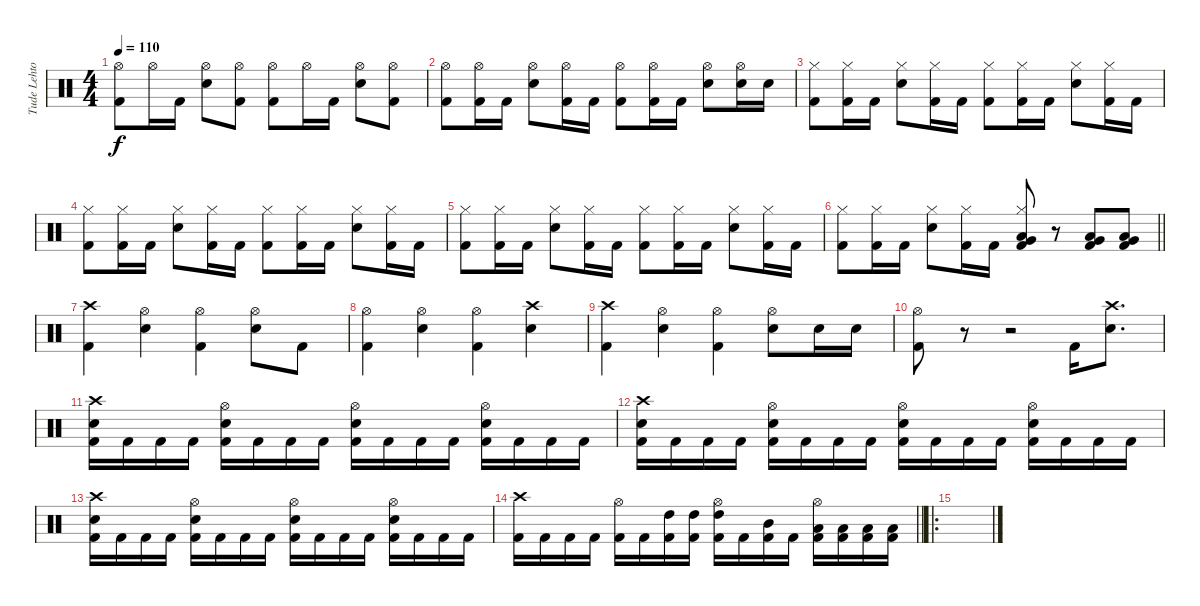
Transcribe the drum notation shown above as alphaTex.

\track ("Tude Lehtonen" "Tude Lehto") {instrument percussion}
\staff {score}
\articulation defaults
\ts (4 4)
\tempo 110
\clef neutral
\ks c
("Hi-Hat (open)" "Kick (hit) 2").8{dy f} "Hi-Hat (open)".16 "Kick (hit) 2".16 ("Hi-Hat (open)" "Snare (hit) 2").8 ("Hi-Hat (open)" "Kick (hit) 2").8 ("Hi-Hat (open)" "Kick (hit) 2").8 "Hi-Hat (open)".16 "Kick (hit) 2".16 ("Hi-Hat (open)" "Snare (hit) 2").8 ("Hi-Hat (open)" "Kick (hit) 2").8 |
("Hi-Hat (open)" "Kick (hit) 2").8 ("Hi-Hat (open)" "Kick (hit) 2").16 "Kick (hit) 2".16 ("Hi-Hat (open)" "Snare (hit) 2").8 ("Hi-Hat (open)" "Kick (hit) 2").16 "Kick (hit) 2".16 ("Hi-Hat (open)" "Kick (hit) 2").8 ("Hi-Hat (open)" "Kick (hit) 2").16 "Kick (hit) 2".16 ("Hi-Hat (open)" "Snare (hit) 2").8 ("Hi-Hat (open)" "Snare (hit) 2").16 "Snare (hit) 2".16 |
("Hi-Hat (closed)" "Kick (hit) 2").8 ("Hi-Hat (closed)" "Kick (hit) 2").16 "Kick (hit) 2".16 ("Hi-Hat (closed)" "Snare (hit) 2").8 ("Hi-Hat (closed)" "Kick (hit) 2").16 "Kick (hit) 2".16 ("Hi-Hat (closed)" "Kick (hit) 2").8 ("Hi-Hat (closed)" "Kick (hit) 2").16 "Kick (hit) 2".16 ("Hi-Hat (closed)" "Snare (hit) 2").8 ("Hi-Hat (closed)" "Kick (hit) 2").16 "Kick (hit) 2".16 |
("Hi-Hat (closed)" "Kick (hit) 2").8 ("Hi-Hat (closed)" "Kick (hit) 2").16 "Kick (hit) 2".16 ("Hi-Hat (closed)" "Snare (hit) 2").8 ("Hi-Hat (closed)" "Kick (hit) 2").16 "Kick (hit) 2".16 ("Hi-Hat (closed)" "Kick (hit) 2").8 ("Hi-Hat (closed)" "Kick (hit) 2").16 "Kick (hit) 2".16 ("Hi-Hat (closed)" "Snare (hit) 2").8 ("Hi-Hat (closed)" "Kick (hit) 2").16 "Kick (hit) 2".16 |
("Hi-Hat (closed)" "Kick (hit) 2").8 ("Hi-Hat (closed)" "Kick (hit) 2").16 "Kick (hit) 2".16 ("Hi-Hat (closed)" "Snare (hit) 2").8 ("Hi-Hat (closed)" "Kick (hit) 2").16 "Kick (hit) 2".16 ("Hi-Hat (closed)" "Kick (hit) 2").8 ("Hi-Hat (closed)" "Kick (hit) 2").16 "Kick (hit) 2".16 ("Hi-Hat (closed)" "Snare (hit) 2").8 ("Hi-Hat (closed)" "Kick (hit) 2").16 "Kick (hit) 2".16 |
\barLineRight lightlight
("Hi-Hat (closed)" "Kick (hit) 2").8 ("Hi-Hat (closed)" "Kick (hit) 2").16 "Kick (hit) 2".16 ("Hi-Hat (closed)" "Snare (hit) 2").8 ("Hi-Hat (closed)" "Kick (hit) 2").16 "Kick (hit) 2".16 ("Hi-Hat (closed)" "Low Floor Tom (hit)" "Very Low Tom (hit)" "Kick (hit) 2").8 r.8 ("Low Floor Tom (hit)" "Very Low Tom (hit)" "Kick (hit) 2").8 ("Low Floor Tom (hit)" "Very Low Tom (hit)" "Kick (hit) 2").8 |
\section ("" "")
("Crash high (hit)" "Kick (hit) 2").4 ("Hi-Hat (open)" "Snare (hit) 2").4 ("Hi-Hat (open)" "Kick (hit) 2").4 ("Hi-Hat (open)" "Snare (hit) 2").8 "Kick (hit) 2".8 |
("Hi-Hat (open)" "Kick (hit) 2").4 ("Hi-Hat (open)" "Snare (hit) 2").4 ("Hi-Hat (open)" "Kick (hit) 2").4 ("Crash high (hit)" "Snare (hit) 2").4 |
("Crash high (hit)" "Kick (hit) 2").4 ("Hi-Hat (open)" "Snare (hit) 2").4 ("Hi-Hat (open)" "Kick (hit) 2").4 ("Hi-Hat (open)" "Snare (hit) 2").8 "Snare (hit) 2".16 "Snare (hit) 2".16 |
("Hi-Hat (open)" "Kick (hit) 2").8 r.8 r.2 "Kick (hit) 2".16 ("Crash high (hit)" "Snare (hit) 2").8{d} |
("Crash high (hit)" "Snare (hit) 2" "Kick (hit) 2").16 "Kick (hit) 2".16 "Kick (hit) 2".16 "Kick (hit) 2".16 ("Hi-Hat (open)" "Snare (hit) 2" "Kick (hit) 2").16 "Kick (hit) 2".16 "Kick (hit) 2".16 "Kick (hit) 2".16 ("Hi-Hat (open)" "Snare (hit) 2" "Kick (hit) 2").16 "Kick (hit) 2".16 "Kick (hit) 2".16 "Kick (hit) 2".16 ("Hi-Hat (open)" "Snare (hit) 2" "Kick (hit) 2").16 "Kick (hit) 2".16 "Kick (hit) 2".16 "Kick (hit) 2".16 |
("Crash high (hit)" "Snare (hit) 2" "Kick (hit) 2").16 "Kick (hit) 2".16 "Kick (hit) 2".16 "Kick (hit) 2".16 ("Hi-Hat (open)" "Snare (hit) 2" "Kick (hit) 2").16 "Kick (hit) 2".16 "Kick (hit) 2".16 "Kick (hit) 2".16 ("Hi-Hat (open)" "Snare (hit) 2" "Kick (hit) 2").16 "Kick (hit) 2".16 "Kick (hit) 2".16 "Kick (hit) 2".16 ("Hi-Hat (open)" "Snare (hit) 2" "Kick (hit) 2").16 "Kick (hit) 2".16 "Kick (hit) 2".16 "Kick (hit) 2".16 |
("Crash high (hit)" "Snare (hit) 2" "Kick (hit) 2").16 "Kick (hit) 2".16 "Kick (hit) 2".16 "Kick (hit) 2".16 ("Hi-Hat (open)" "Snare (hit) 2" "Kick (hit) 2").16 "Kick (hit) 2".16 "Kick (hit) 2".16 "Kick (hit) 2".16 ("Hi-Hat (open)" "Snare (hit) 2" "Kick (hit) 2").16 "Kick (hit) 2".16 "Kick (hit) 2".16 "Kick (hit) 2".16 ("Hi-Hat (open)" "Snare (hit) 2" "Kick (hit) 2").16 "Kick (hit) 2".16 "Kick (hit) 2".16 "Kick (hit) 2".16 |
\barLineRight lightlight
("Crash high (hit)" "Kick (hit) 2").16 "Kick (hit) 2".16 "Kick (hit) 2".16 "Kick (hit) 2".16 ("Hi-Hat (open)" "Kick (hit) 2").16 "Kick (hit) 2".16 ("High Tom (hit)" "Kick (hit) 2").16 ("High Tom (hit)" "Kick (hit) 2").16 ("Hi-Hat (open)" "High Tom (hit)" "Kick (hit) 2").16 "Kick (hit) 2".16 ("Mid Tom (hit)" "Kick (hit) 2").16 "Kick (hit) 2".16 ("Hi-Hat (open)" "Low Tom (hit)" "Kick (hit) 2").16 ("Low Tom (hit)" "Kick (hit) 2").16 ("Low Tom (hit)" "Kick (hit) 2").16 ("Low Tom (hit)" "Kick (hit) 2").16 |
\ro
\section ("" "")
